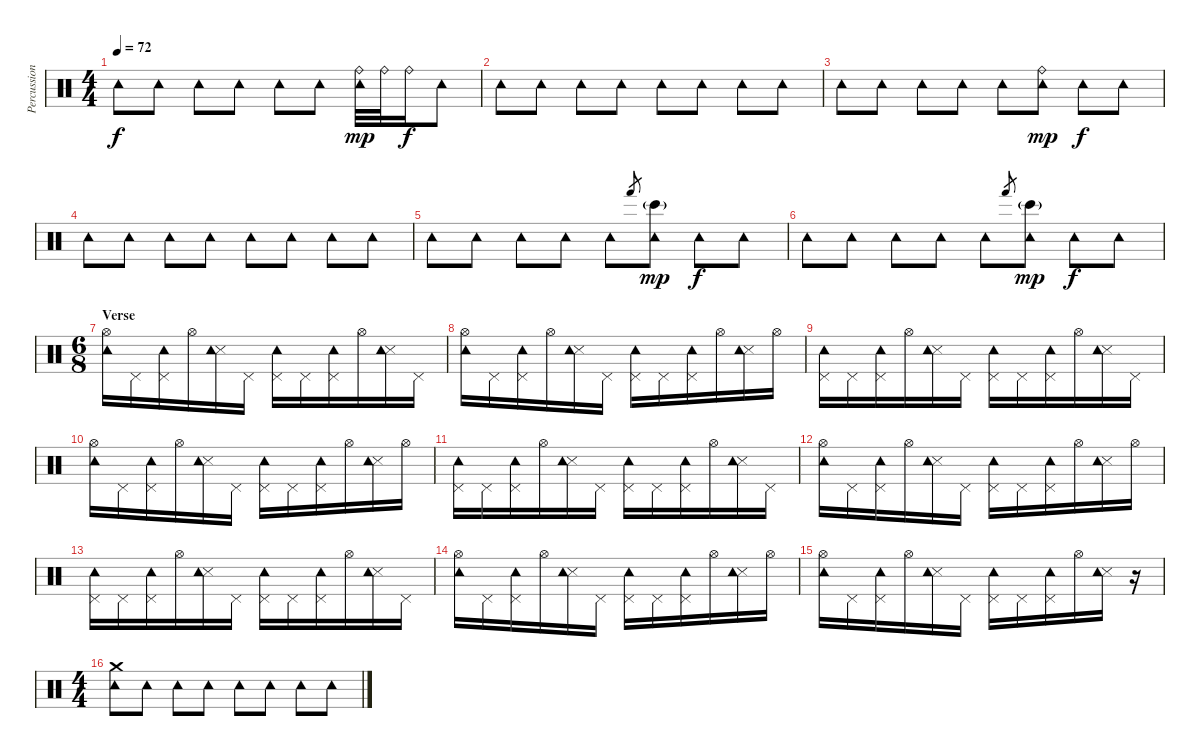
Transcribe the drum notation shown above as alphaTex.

\track ("Percussion" "Percussion") {instrument percussion}
\staff {score}
\articulation defaults
\ts (4 4)
\tempo 72
\clef neutral
\ks c "Tambourine (hit)".8{dy f} "Tambourine (hit)".8 "Tambourine (hit)".8 "Tambourine (hit)".8 "Tambourine (hit)".8 "Tambourine (hit)".8
("Ride (bell)" "Tambourine (hit)").32{dy mp} "Ride (bell)".32 "Ride (bell)".16{dy f} "Tambourine (hit)".8 |
"Tambourine (hit)".8 "Tambourine (hit)".8 "Tambourine (hit)".8 "Tambourine (hit)".8 "Tambourine (hit)".8 "Tambourine (hit)".8 "Tambourine (hit)".8 "Tambourine (hit)".8 |
"Tambourine (hit)".8 "Tambourine (hit)".8 "Tambourine (hit)".8 "Tambourine (hit)".8 "Tambourine (hit)".8 ("Ride (bell)" "Tambourine (hit)").8{dy mp} "Tambourine (hit)".8{dy f} "Tambourine (hit)".8 |
"Tambourine (hit)".8 "Tambourine (hit)".8 "Tambourine (hit)".8 "Tambourine (hit)".8 "Tambourine (hit)".8 "Tambourine (hit)".8 "Tambourine (hit)".8 "Tambourine (hit)".8 |
"Tambourine (hit)".8 "Tambourine (hit)".8 "Tambourine (hit)".8 "Tambourine (hit)".8 "Tambourine (hit)".8 "Hand (hit)".8{gr} ("Bongo High (hit)"{g} "Tambourine (hit)").8{dy mp} "Tambourine (hit)".8{dy f} "Tambourine (hit)".8 |
"Tambourine (hit)".8 "Tambourine (hit)".8 "Tambourine (hit)".8 "Tambourine (hit)".8 "Tambourine (hit)".8 "Hand (hit)".8{gr} ("Bongo High (hit)"{g} "Tambourine (hit)").8{dy mp} "Tambourine (hit)".8{dy f} "Tambourine (hit)".8 |
\ts (6 8)
\section ("" "Verse")
("Hi-Hat (open)" "Tambourine (hit)").16 "Pedal Hi-Hat (hit)".16 ("Pedal Hi-Hat (hit)" "Tambourine (hit)").16 "Hi-Hat (open)".16 ("Snare (side stick) 3" "Tambourine (hit)").16 "Pedal Hi-Hat (hit)".16 ("Pedal Hi-Hat (hit)" "Tambourine (hit)").16 "Pedal Hi-Hat (hit)".16 ("Pedal Hi-Hat (hit)" "Tambourine (hit)").16 "Hi-Hat (open)".16 ("Snare (side stick) 3" "Tambourine (hit)").16 "Pedal Hi-Hat (hit)".16 |
("Hi-Hat (open)" "Tambourine (hit)").16 "Pedal Hi-Hat (hit)".16 ("Pedal Hi-Hat (hit)" "Tambourine (hit)").16 "Hi-Hat (open)".16 ("Snare (side stick) 3" "Tambourine (hit)").16 "Pedal Hi-Hat (hit)".16 ("Pedal Hi-Hat (hit)" "Tambourine (hit)").16 "Pedal Hi-Hat (hit)".16 ("Pedal Hi-Hat (hit)" "Tambourine (hit)").16 "Hi-Hat (open)".16 ("Snare (side stick) 3" "Tambourine (hit)").16 "Hi-Hat (open)".16 |
("Pedal Hi-Hat (hit)" "Tambourine (hit)").16 "Pedal Hi-Hat (hit)".16 ("Pedal Hi-Hat (hit)" "Tambourine (hit)").16 "Hi-Hat (open)".16 ("Snare (side stick) 3" "Tambourine (hit)").16 "Pedal Hi-Hat (hit)".16 ("Pedal Hi-Hat (hit)" "Tambourine (hit)").16 "Pedal Hi-Hat (hit)".16 ("Pedal Hi-Hat (hit)" "Tambourine (hit)").16 "Hi-Hat (open)".16 ("Snare (side stick) 3" "Tambourine (hit)").16 "Pedal Hi-Hat (hit)".16 |
("Hi-Hat (open)" "Tambourine (hit)").16 "Pedal Hi-Hat (hit)".16 ("Pedal Hi-Hat (hit)" "Tambourine (hit)").16 "Hi-Hat (open)".16 ("Snare (side stick) 3" "Tambourine (hit)").16 "Pedal Hi-Hat (hit)".16 ("Pedal Hi-Hat (hit)" "Tambourine (hit)").16 "Pedal Hi-Hat (hit)".16 ("Pedal Hi-Hat (hit)" "Tambourine (hit)").16 "Hi-Hat (open)".16 ("Snare (side stick) 3" "Tambourine (hit)").16 "Hi-Hat (open)".16 |
("Pedal Hi-Hat (hit)" "Tambourine (hit)").16 "Pedal Hi-Hat (hit)".16 ("Pedal Hi-Hat (hit)" "Tambourine (hit)").16 "Hi-Hat (open)".16 ("Snare (side stick) 3" "Tambourine (hit)").16 "Pedal Hi-Hat (hit)".16 ("Pedal Hi-Hat (hit)" "Tambourine (hit)").16 "Pedal Hi-Hat (hit)".16 ("Pedal Hi-Hat (hit)" "Tambourine (hit)").16 "Hi-Hat (open)".16 ("Snare (side stick) 3" "Tambourine (hit)").16 "Pedal Hi-Hat (hit)".16 |
("Hi-Hat (open)" "Tambourine (hit)").16 "Pedal Hi-Hat (hit)".16 ("Pedal Hi-Hat (hit)" "Tambourine (hit)").16 "Hi-Hat (open)".16 ("Snare (side stick) 3" "Tambourine (hit)").16 "Pedal Hi-Hat (hit)".16 ("Pedal Hi-Hat (hit)" "Tambourine (hit)").16 "Pedal Hi-Hat (hit)".16 ("Pedal Hi-Hat (hit)" "Tambourine (hit)").16 "Hi-Hat (open)".16 ("Snare (side stick) 3" "Tambourine (hit)").16 "Hi-Hat (open)".16 |
("Pedal Hi-Hat (hit)" "Tambourine (hit)").16 "Pedal Hi-Hat (hit)".16 ("Pedal Hi-Hat (hit)" "Tambourine (hit)").16 "Hi-Hat (open)".16 ("Snare (side stick) 3" "Tambourine (hit)").16 "Pedal Hi-Hat (hit)".16 ("Pedal Hi-Hat (hit)" "Tambourine (hit)").16 "Pedal Hi-Hat (hit)".16 ("Pedal Hi-Hat (hit)" "Tambourine (hit)").16 "Hi-Hat (open)".16 ("Snare (side stick) 3" "Tambourine (hit)").16 "Pedal Hi-Hat (hit)".16 |
("Hi-Hat (open)" "Tambourine (hit)").16 "Pedal Hi-Hat (hit)".16 ("Pedal Hi-Hat (hit)" "Tambourine (hit)").16 "Hi-Hat (open)".16 ("Snare (side stick) 3" "Tambourine (hit)").16 "Pedal Hi-Hat (hit)".16 ("Pedal Hi-Hat (hit)" "Tambourine (hit)").16 "Pedal Hi-Hat (hit)".16 ("Pedal Hi-Hat (hit)" "Tambourine (hit)").16 "Hi-Hat (open)".16 ("Snare (side stick) 3" "Tambourine (hit)").16 "Hi-Hat (open)".16 |
("Hi-Hat (open)" "Tambourine (hit)").16 "Pedal Hi-Hat (hit)".16 ("Pedal Hi-Hat (hit)" "Tambourine (hit)").16 "Hi-Hat (open)".16 ("Snare (side stick) 3" "Tambourine (hit)").16 "Pedal Hi-Hat (hit)".16 ("Pedal Hi-Hat (hit)" "Tambourine (hit)").16 "Pedal Hi-Hat (hit)".16 ("Pedal Hi-Hat (hit)" "Tambourine (hit)").16 "Hi-Hat (open)".16 ("Snare (side stick) 3" "Tambourine (hit)").16 r.16 |
\ts (4 4)
\section ("" "")
("Crash medium (hit)" "Tambourine (hit)").8 "Tambourine (hit)".8 "Tambourine (hit)".8 "Tambourine (hit)".8 "Tambourine (hit)".8 "Tambourine (hit)".8 "Tambourine (hit)".8 "Tambourine (hit)".8
